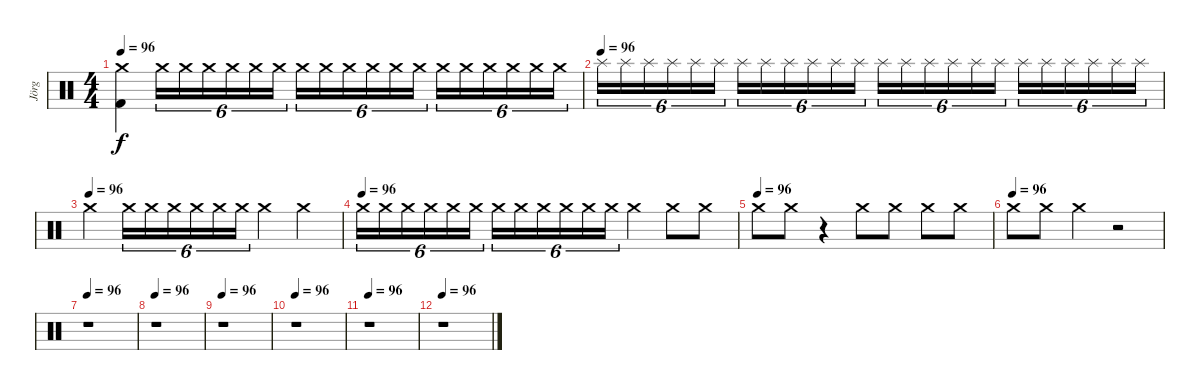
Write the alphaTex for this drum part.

\track ("Jörg" "Jörg") {instrument percussion}
\staff {score}
\articulation defaults
\ts (4 4)
\tempo 96
\clef neutral
\ks c
("Crash medium (hit)" "Kick (hit) 2").4{dy f} "Crash medium (hit)".16{tu (6 4)} "Crash medium (hit)".16{tu (6 4)} "Crash medium (hit)".16{tu (6 4)} "Crash medium (hit)".16{tu (6 4)} "Crash medium (hit)".16{tu (6 4)} "Crash medium (hit)".16{tu (6 4)} "Crash medium (hit)".16{tu (6 4)} "Crash medium (hit)".16{tu (6 4)} "Crash medium (hit)".16{tu (6 4)} "Crash medium (hit)".16{tu (6 4)} "Crash medium (hit)".16{tu (6 4)} "Crash medium (hit)".16{tu (6 4)} "Crash medium (hit)".16{tu (6 4)} "Crash medium (hit)".16{tu (6 4)} "Crash medium (hit)".16{tu (6 4)} "Crash medium (hit)".16{tu (6 4)} "Crash medium (hit)".16{tu (6 4)} "Crash medium (hit)".16{tu (6 4)} |
\tempo (96)
"Splash (hit)".16{tu (6 4)} "Splash (hit)".16{tu (6 4)} "Splash (hit)".16{tu (6 4)} "Splash (hit)".16{tu (6 4)} "Splash (hit)".16{tu (6 4)} "Splash (hit)".16{tu (6 4)} "Splash (hit)".16{tu (6 4)} "Splash (hit)".16{tu (6 4)} "Splash (hit)".16{tu (6 4)} "Splash (hit)".16{tu (6 4)} "Splash (hit)".16{tu (6 4)} "Splash (hit)".16{tu (6 4)} "Splash (hit)".16{tu (6 4)} "Splash (hit)".16{tu (6 4)} "Splash (hit)".16{tu (6 4)} "Splash (hit)".16{tu (6 4)} "Splash (hit)".16{tu (6 4)} "Splash (hit)".16{tu (6 4)} "Splash (hit)".16{tu (6 4)} "Splash (hit)".16{tu (6 4)} "Splash (hit)".16{tu (6 4)} "Splash (hit)".16{tu (6 4)} "Splash (hit)".16{tu (6 4)} "Splash (hit)".16{tu (6 4)} |
\tempo (96)
"Crash medium (hit)".4 "Crash medium (hit)".16{tu (6 4)} "Crash medium (hit)".16{tu (6 4)} "Crash medium (hit)".16{tu (6 4)} "Crash medium (hit)".16{tu (6 4)} "Crash medium (hit)".16{tu (6 4)} "Crash medium (hit)".16{tu (6 4)} "Crash medium (hit)".4 "Crash medium (hit)".4 |
\tempo (96)
"Crash medium (hit)".16{tu (6 4)} "Crash medium (hit)".16{tu (6 4)} "Crash medium (hit)".16{tu (6 4)} "Crash medium (hit)".16{tu (6 4)} "Crash medium (hit)".16{tu (6 4)} "Crash medium (hit)".16{tu (6 4)} "Crash medium (hit)".16{tu (6 4)} "Crash medium (hit)".16{tu (6 4)} "Crash medium (hit)".16{tu (6 4)} "Crash medium (hit)".16{tu (6 4)} "Crash medium (hit)".16{tu (6 4)} "Crash medium (hit)".16{tu (6 4)} "Crash medium (hit)".4 "Crash medium (hit)".8 "Crash medium (hit)".8 |
\tempo (96)
"Crash medium (hit)".8 "Crash medium (hit)".8 r.4 "Crash medium (hit)".8 "Crash medium (hit)".8 "Crash medium (hit)".8 "Crash medium (hit)".8 |
\tempo (96)
"Crash medium (hit)".8 "Crash medium (hit)".8 "Crash medium (hit)".4 r.2 |
\tempo 96
r.1 |
\tempo 96
r.1 |
\tempo 96
r.1 |
\tempo 96
r.1 |
\tempo 96
r.1 |
\tempo 96
r.1
